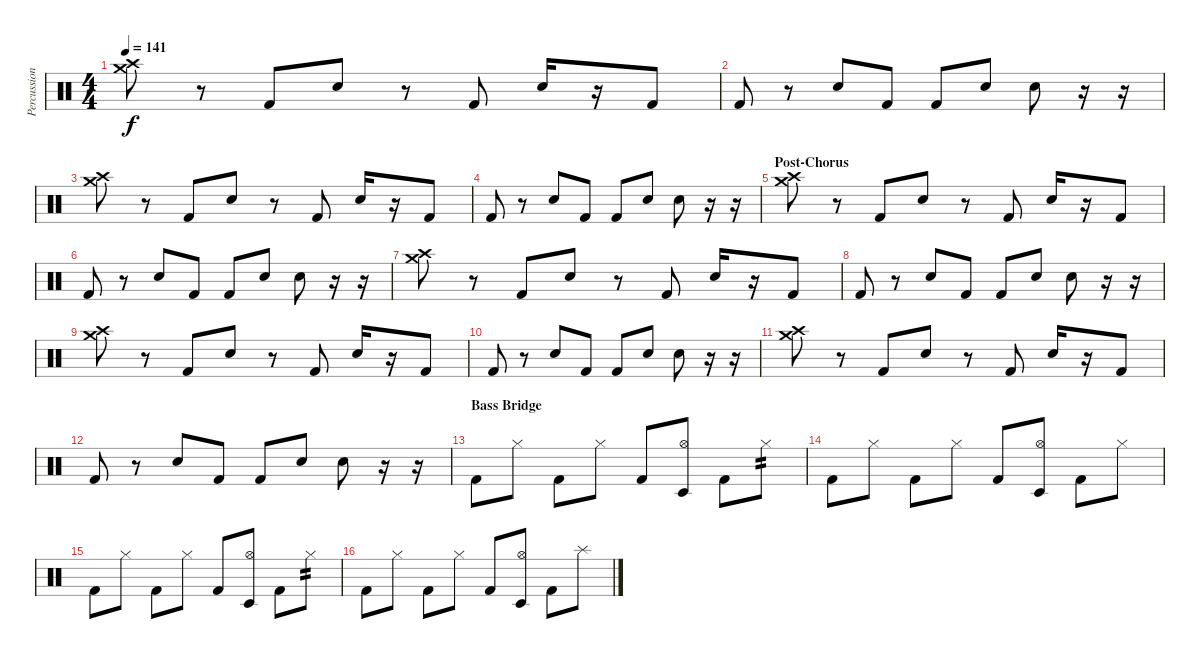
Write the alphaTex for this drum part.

\track ("Percussion" "Percussion") {instrument percussion}
\staff {score}
\articulation defaults
\ts (4 4)
\tempo 141
\clef neutral
\ks c
("Crash high (hit)" "Crash medium (hit)").8{dy f} r.8 "Kick (hit) 2".8 "Electric Snare (hit)".8 r.8 "Kick (hit) 2".8 "Electric Snare (hit)".16 r.16 "Kick (hit) 2".8 |
"Kick (hit) 2".8 r.8 "Electric Snare (hit)".8 "Kick (hit) 2".8 "Kick (hit) 2".8 "Electric Snare (hit)".8 "Electric Snare (hit)".8 r.16 r.16 |
("Crash high (hit)" "Crash medium (hit)").8 r.8 "Kick (hit) 2".8 "Electric Snare (hit)".8 r.8 "Kick (hit) 2".8 "Electric Snare (hit)".16 r.16 "Kick (hit) 2".8 |
"Kick (hit) 2".8 r.8 "Electric Snare (hit)".8 "Kick (hit) 2".8 "Kick (hit) 2".8 "Electric Snare (hit)".8 "Electric Snare (hit)".8 r.16 r.16 |
\section ("" "Post-Chorus")
("Crash high (hit)" "Crash medium (hit)").8 r.8 "Kick (hit) 2".8 "Electric Snare (hit)".8 r.8 "Kick (hit) 2".8 "Electric Snare (hit)".16 r.16 "Kick (hit) 2".8 |
"Kick (hit) 2".8 r.8 "Electric Snare (hit)".8 "Kick (hit) 2".8 "Kick (hit) 2".8 "Electric Snare (hit)".8 "Electric Snare (hit)".8 r.16 r.16 |
("Crash high (hit)" "Crash medium (hit)").8 r.8 "Kick (hit) 2".8 "Electric Snare (hit)".8 r.8 "Kick (hit) 2".8 "Electric Snare (hit)".16 r.16 "Kick (hit) 2".8 |
"Kick (hit) 2".8 r.8 "Electric Snare (hit)".8 "Kick (hit) 2".8 "Kick (hit) 2".8 "Electric Snare (hit)".8 "Electric Snare (hit)".8 r.16 r.16 |
("Crash high (hit)" "Crash medium (hit)").8 r.8 "Kick (hit) 2".8 "Electric Snare (hit)".8 r.8 "Kick (hit) 2".8 "Electric Snare (hit)".16 r.16 "Kick (hit) 2".8 |
"Kick (hit) 2".8 r.8 "Electric Snare (hit)".8 "Kick (hit) 2".8 "Kick (hit) 2".8 "Electric Snare (hit)".8 "Electric Snare (hit)".8 r.16 r.16 |
("Crash high (hit)" "Crash medium (hit)").8 r.8 "Kick (hit) 2".8 "Electric Snare (hit)".8 r.8 "Kick (hit) 2".8 "Electric Snare (hit)".16 r.16 "Kick (hit) 2".8 |
"Kick (hit) 2".8 r.8 "Electric Snare (hit)".8 "Kick (hit) 2".8 "Kick (hit) 2".8 "Electric Snare (hit)".8 "Electric Snare (hit)".8 r.16 r.16 |
\section ("" "Bass Bridge")
"Kick (hit) 2".8 "Hi-Hat (closed)".8 "Kick (hit) 2".8 "Hi-Hat (closed)".8 "Kick (hit) 2".8 ("Hi-Hat (open)" "Timbale low (hit)").8 "Kick (hit) 2".8 "Hi-Hat (closed)".8{tp 2} |
"Kick (hit) 2".8 "Hi-Hat (closed)".8 "Kick (hit) 2".8 "Hi-Hat (closed)".8 "Kick (hit) 2".8 ("Hi-Hat (open)" "Timbale low (hit)").8 "Kick (hit) 2".8 "Hi-Hat (closed)".8 |
"Kick (hit) 2".8 "Hi-Hat (closed)".8 "Kick (hit) 2".8 "Hi-Hat (closed)".8 "Kick (hit) 2".8 ("Hi-Hat (open)" "Timbale low (hit)").8 "Kick (hit) 2".8 "Hi-Hat (closed)".8{tp 2} |
"Kick (hit) 2".8 "Hi-Hat (closed)".8 "Kick (hit) 2".8 "Hi-Hat (closed)".8 "Kick (hit) 2".8 ("Hi-Hat (open)" "Timbale low (hit)").8 "Kick (hit) 2".8 "Splash (hit)".8
